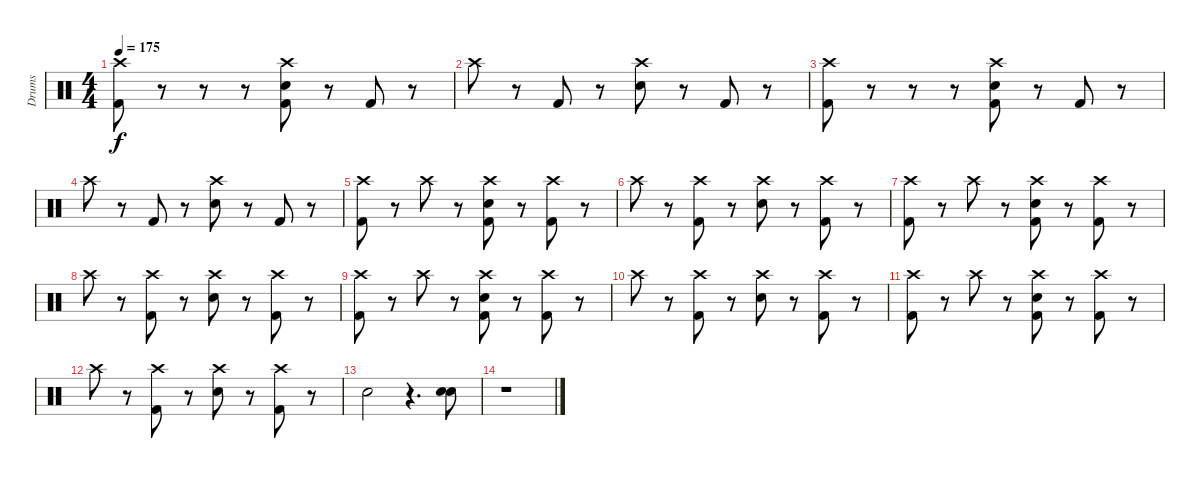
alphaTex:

\track ("Drums" "Drums") {instrument percussion}
\staff {score}
\articulation defaults
\ts (4 4)
\tempo 175
\clef neutral
\ks c
("Crash high (hit)" "Kick (hit) 2").8{dy f} r.8 r.8 r.8 ("Crash high (hit)" "Electric Snare (hit)" "Kick (hit) 2").8 r.8 "Kick (hit) 2".8 r.8 |
"Crash high (hit)".8 r.8 "Kick (hit) 2".8 r.8 ("Crash high (hit)" "Electric Snare (hit)").8 r.8 "Kick (hit) 2".8 r.8 |
("Crash high (hit)" "Kick (hit) 2").8 r.8 r.8 r.8 ("Crash high (hit)" "Electric Snare (hit)" "Kick (hit) 2").8 r.8 "Kick (hit) 2".8 r.8 |
"Crash high (hit)".8 r.8 "Kick (hit) 2".8 r.8 ("Crash high (hit)" "Electric Snare (hit)").8 r.8 "Kick (hit) 2".8 r.8 |
("Crash high (hit)" "Kick (hit) 2").8 r.8 "Crash high (hit)".8 r.8 ("Crash high (hit)" "Electric Snare (hit)" "Kick (hit) 2").8 r.8 ("Crash high (hit)" "Kick (hit) 2").8 r.8 |
"Crash high (hit)".8 r.8 ("Crash high (hit)" "Kick (hit) 2").8 r.8 ("Crash high (hit)" "Electric Snare (hit)").8 r.8 ("Crash high (hit)" "Kick (hit) 2").8 r.8 |
("Crash high (hit)" "Kick (hit) 2").8 r.8 "Crash high (hit)".8 r.8 ("Crash high (hit)" "Electric Snare (hit)" "Kick (hit) 2").8 r.8 ("Crash high (hit)" "Kick (hit) 2").8 r.8 |
"Crash high (hit)".8 r.8 ("Crash high (hit)" "Kick (hit) 2").8 r.8 ("Crash high (hit)" "Electric Snare (hit)").8 r.8 ("Crash high (hit)" "Kick (hit) 2").8 r.8 |
("Crash high (hit)" "Kick (hit) 2").8 r.8 "Crash high (hit)".8 r.8 ("Crash high (hit)" "Electric Snare (hit)" "Kick (hit) 2").8 r.8 ("Crash high (hit)" "Kick (hit) 2").8 r.8 |
"Crash high (hit)".8 r.8 ("Crash high (hit)" "Kick (hit) 2").8 r.8 ("Crash high (hit)" "Electric Snare (hit)").8 r.8 ("Crash high (hit)" "Kick (hit) 2").8 r.8 |
("Crash high (hit)" "Kick (hit) 2").8 r.8 "Crash high (hit)".8 r.8 ("Crash high (hit)" "Electric Snare (hit)" "Kick (hit) 2").8 r.8 ("Crash high (hit)" "Kick (hit) 2").8 r.8 |
"Crash high (hit)".8 r.8 ("Crash high (hit)" "Kick (hit) 2").8 r.8 ("Crash high (hit)" "Electric Snare (hit)").8 r.8 ("Crash high (hit)" "Kick (hit) 2").8 r.8 |
"Snare (hit)".2 r.4{d} ("Electric Snare (hit)" "Snare (hit) 2").8 |
r.1
